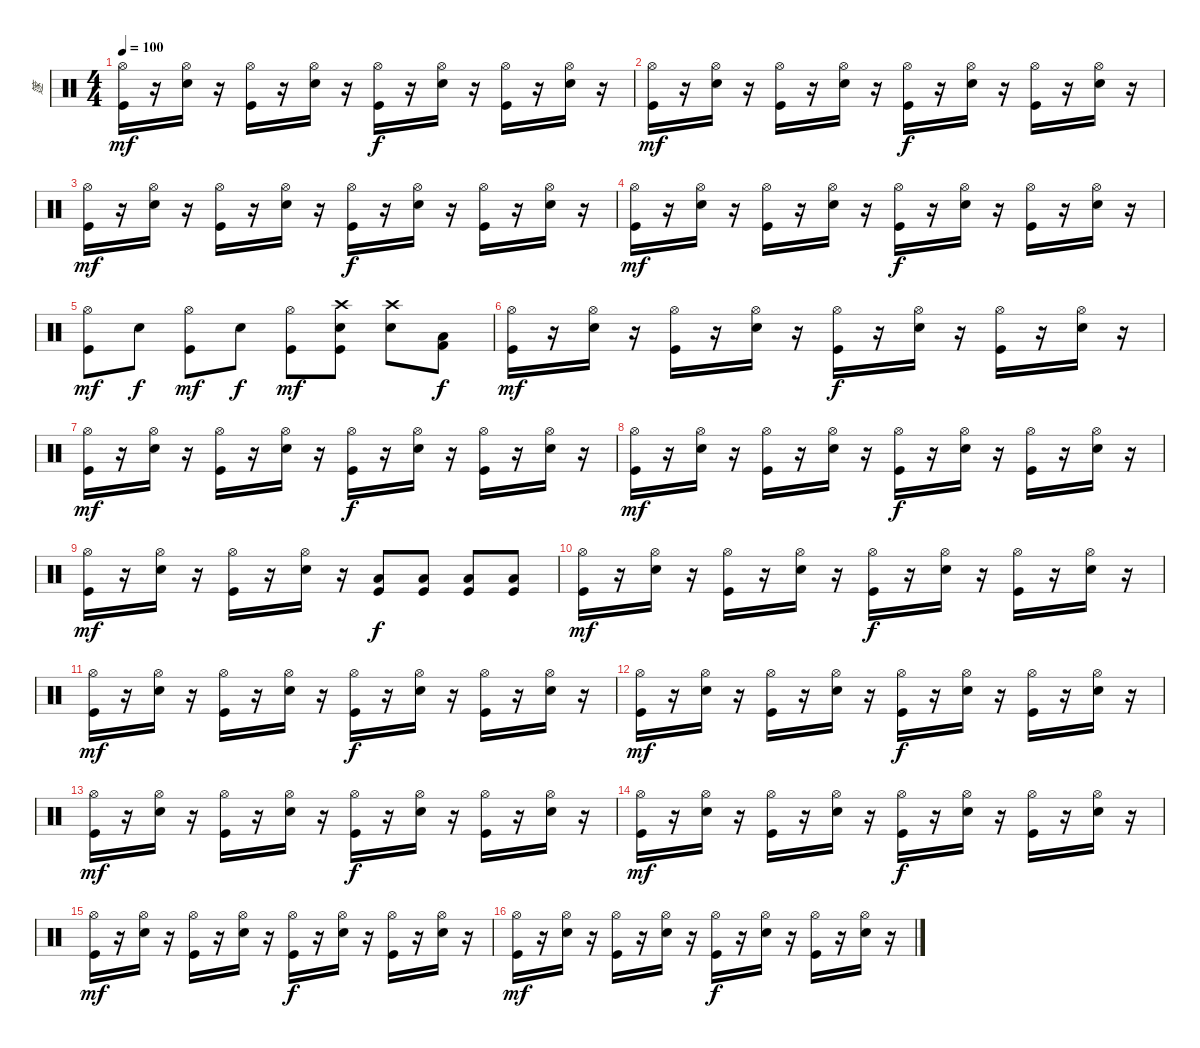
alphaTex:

\track ("篴" "篴") {instrument percussion}
\staff {score}
\articulation defaults
\ts (4 4)
\tempo 100
\clef neutral
\ks c
("Hi-Hat (open)" "Kick (hit)").16{dy mf} r.16 ("Hi-Hat (open)" "Snare (hit) 2").16 r.16 ("Hi-Hat (open)" "Kick (hit)").16 r.16 ("Hi-Hat (open)" "Snare (hit) 2").16 r.16 ("Hi-Hat (open)" "Kick (hit)").16{dy f} r.16 ("Hi-Hat (open)" "Snare (hit) 2").16 r.16 ("Hi-Hat (open)" "Kick (hit)").16 r.16 ("Hi-Hat (open)" "Snare (hit) 2").16 r.16 |
("Hi-Hat (open)" "Kick (hit)").16{dy mf} r.16 ("Hi-Hat (open)" "Snare (hit) 2").16 r.16 ("Hi-Hat (open)" "Kick (hit)").16 r.16 ("Hi-Hat (open)" "Snare (hit) 2").16 r.16 ("Hi-Hat (open)" "Kick (hit)").16{dy f} r.16 ("Hi-Hat (open)" "Snare (hit) 2").16 r.16 ("Hi-Hat (open)" "Kick (hit)").16 r.16 ("Hi-Hat (open)" "Snare (hit) 2").16 r.16 |
("Hi-Hat (open)" "Kick (hit)").16{dy mf} r.16 ("Hi-Hat (open)" "Snare (hit) 2").16 r.16 ("Hi-Hat (open)" "Kick (hit)").16 r.16 ("Hi-Hat (open)" "Snare (hit) 2").16 r.16 ("Hi-Hat (open)" "Kick (hit)").16{dy f} r.16 ("Hi-Hat (open)" "Snare (hit) 2").16 r.16 ("Hi-Hat (open)" "Kick (hit)").16 r.16 ("Hi-Hat (open)" "Snare (hit) 2").16 r.16 |
("Hi-Hat (open)" "Kick (hit)").16{dy mf} r.16 ("Hi-Hat (open)" "Snare (hit) 2").16 r.16 ("Hi-Hat (open)" "Kick (hit)").16 r.16 ("Hi-Hat (open)" "Snare (hit) 2").16 r.16 ("Hi-Hat (open)" "Kick (hit)").16{dy f} r.16 ("Hi-Hat (open)" "Snare (hit) 2").16 r.16 ("Hi-Hat (open)" "Kick (hit)").16 r.16 ("Hi-Hat (open)" "Snare (hit) 2").16 r.16 |
("Hi-Hat (open)" "Kick (hit)").8{dy mf} "Snare (hit) 2".8{dy f} ("Hi-Hat (open)" "Kick (hit)").8{dy mf} "Snare (hit) 2".8{dy f} ("Hi-Hat (open)" "Kick (hit)").8{dy mf} ("Crash high (hit)" "Snare (hit) 2" "Kick (hit)").8 ("Crash high (hit)" "Snare (hit) 2").8 ("Low Tom (hit)" "Kick (hit) 2").8{dy f} |
("Hi-Hat (open)" "Kick (hit)").16{dy mf} r.16 ("Hi-Hat (open)" "Snare (hit) 2").16 r.16 ("Hi-Hat (open)" "Kick (hit)").16 r.16 ("Hi-Hat (open)" "Snare (hit) 2").16 r.16 ("Hi-Hat (open)" "Kick (hit)").16{dy f} r.16 ("Hi-Hat (open)" "Snare (hit) 2").16 r.16 ("Hi-Hat (open)" "Kick (hit)").16 r.16 ("Hi-Hat (open)" "Snare (hit) 2").16 r.16 |
("Hi-Hat (open)" "Kick (hit)").16{dy mf} r.16 ("Hi-Hat (open)" "Snare (hit) 2").16 r.16 ("Hi-Hat (open)" "Kick (hit)").16 r.16 ("Hi-Hat (open)" "Snare (hit) 2").16 r.16 ("Hi-Hat (open)" "Kick (hit)").16{dy f} r.16 ("Hi-Hat (open)" "Snare (hit) 2").16 r.16 ("Hi-Hat (open)" "Kick (hit)").16 r.16 ("Hi-Hat (open)" "Snare (hit) 2").16 r.16 |
("Hi-Hat (open)" "Kick (hit)").16{dy mf} r.16 ("Hi-Hat (open)" "Snare (hit) 2").16 r.16 ("Hi-Hat (open)" "Kick (hit)").16 r.16 ("Hi-Hat (open)" "Snare (hit) 2").16 r.16 ("Hi-Hat (open)" "Kick (hit)").16{dy f} r.16 ("Hi-Hat (open)" "Snare (hit) 2").16 r.16 ("Hi-Hat (open)" "Kick (hit)").16 r.16 ("Hi-Hat (open)" "Snare (hit) 2").16 r.16 |
("Hi-Hat (open)" "Kick (hit)").16{dy mf} r.16 ("Hi-Hat (open)" "Snare (hit) 2").16 r.16 ("Hi-Hat (open)" "Kick (hit)").16 r.16 ("Hi-Hat (open)" "Snare (hit) 2").16 r.16 ("Low Tom (hit)" "Kick (hit)").8{dy f} ("Low Tom (hit)" "Kick (hit)").8 ("Low Tom (hit)" "Kick (hit)").8 ("Low Tom (hit)" "Kick (hit)").8 |
("Hi-Hat (open)" "Kick (hit)").16{dy mf} r.16 ("Hi-Hat (open)" "Snare (hit) 2").16 r.16 ("Hi-Hat (open)" "Kick (hit)").16 r.16 ("Hi-Hat (open)" "Snare (hit) 2").16 r.16 ("Hi-Hat (open)" "Kick (hit)").16{dy f} r.16 ("Hi-Hat (open)" "Snare (hit) 2").16 r.16 ("Hi-Hat (open)" "Kick (hit)").16 r.16 ("Hi-Hat (open)" "Snare (hit) 2").16 r.16 |
("Hi-Hat (open)" "Kick (hit)").16{dy mf} r.16 ("Hi-Hat (open)" "Snare (hit) 2").16 r.16 ("Hi-Hat (open)" "Kick (hit)").16 r.16 ("Hi-Hat (open)" "Snare (hit) 2").16 r.16 ("Hi-Hat (open)" "Kick (hit)").16{dy f} r.16 ("Hi-Hat (open)" "Snare (hit) 2").16 r.16 ("Hi-Hat (open)" "Kick (hit)").16 r.16 ("Hi-Hat (open)" "Snare (hit) 2").16 r.16 |
("Hi-Hat (open)" "Kick (hit)").16{dy mf} r.16 ("Hi-Hat (open)" "Snare (hit) 2").16 r.16 ("Hi-Hat (open)" "Kick (hit)").16 r.16 ("Hi-Hat (open)" "Snare (hit) 2").16 r.16 ("Hi-Hat (open)" "Kick (hit)").16{dy f} r.16 ("Hi-Hat (open)" "Snare (hit) 2").16 r.16 ("Hi-Hat (open)" "Kick (hit)").16 r.16 ("Hi-Hat (open)" "Snare (hit) 2").16 r.16 |
("Hi-Hat (open)" "Kick (hit)").16{dy mf} r.16 ("Hi-Hat (open)" "Snare (hit) 2").16 r.16 ("Hi-Hat (open)" "Kick (hit)").16 r.16 ("Hi-Hat (open)" "Snare (hit) 2").16 r.16 ("Hi-Hat (open)" "Kick (hit)").16{dy f} r.16 ("Hi-Hat (open)" "Snare (hit) 2").16 r.16 ("Hi-Hat (open)" "Kick (hit)").16 r.16 ("Hi-Hat (open)" "Snare (hit) 2").16 r.16 |
("Hi-Hat (open)" "Kick (hit)").16{dy mf} r.16 ("Hi-Hat (open)" "Snare (hit) 2").16 r.16 ("Hi-Hat (open)" "Kick (hit)").16 r.16 ("Hi-Hat (open)" "Snare (hit) 2").16 r.16 ("Hi-Hat (open)" "Kick (hit)").16{dy f} r.16 ("Hi-Hat (open)" "Snare (hit) 2").16 r.16 ("Hi-Hat (open)" "Kick (hit)").16 r.16 ("Hi-Hat (open)" "Snare (hit) 2").16 r.16 |
("Hi-Hat (open)" "Kick (hit)").16{dy mf} r.16 ("Hi-Hat (open)" "Snare (hit) 2").16 r.16 ("Hi-Hat (open)" "Kick (hit)").16 r.16 ("Hi-Hat (open)" "Snare (hit) 2").16 r.16 ("Hi-Hat (open)" "Kick (hit)").16{dy f} r.16 ("Hi-Hat (open)" "Snare (hit) 2").16 r.16 ("Hi-Hat (open)" "Kick (hit)").16 r.16 ("Hi-Hat (open)" "Snare (hit) 2").16 r.16 |
("Hi-Hat (open)" "Kick (hit)").16{dy mf} r.16 ("Hi-Hat (open)" "Snare (hit) 2").16 r.16 ("Hi-Hat (open)" "Kick (hit)").16 r.16 ("Hi-Hat (open)" "Snare (hit) 2").16 r.16 ("Hi-Hat (open)" "Kick (hit)").16{dy f} r.16 ("Hi-Hat (open)" "Snare (hit) 2").16 r.16 ("Hi-Hat (open)" "Kick (hit)").16 r.16 ("Hi-Hat (open)" "Snare (hit) 2").16 r.16
